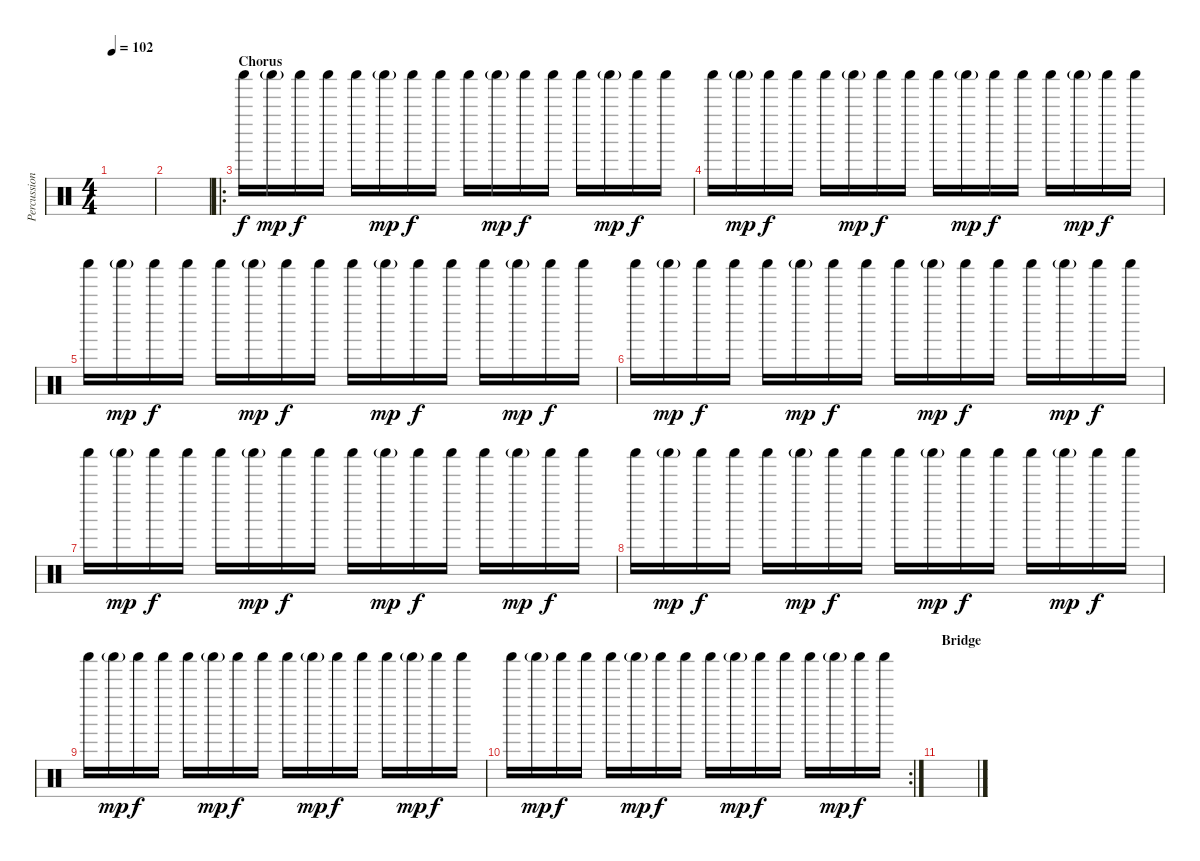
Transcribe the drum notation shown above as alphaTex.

\track ("Percussion" "Percussion") {instrument percussion}
\staff {score}
\articulation defaults
\ts (4 4)
\tempo 102
\clef neutral
\ks c
|
|
\ro
\section ("" "Chorus")
"Shaker (hit)".16 "Shaker (hit)"{g}.16{dy mp} "Shaker (hit)".16{dy f} "Shaker (hit)".16 "Shaker (hit)".16 "Shaker (hit)"{g}.16{dy mp} "Shaker (hit)".16{dy f} "Shaker (hit)".16 "Shaker (hit)".16 "Shaker (hit)"{g}.16{dy mp} "Shaker (hit)".16{dy f} "Shaker (hit)".16 "Shaker (hit)".16 "Shaker (hit)"{g}.16{dy mp} "Shaker (hit)".16{dy f} "Shaker (hit)".16 |
"Shaker (hit)".16 "Shaker (hit)"{g}.16{dy mp} "Shaker (hit)".16{dy f} "Shaker (hit)".16 "Shaker (hit)".16 "Shaker (hit)"{g}.16{dy mp} "Shaker (hit)".16{dy f} "Shaker (hit)".16 "Shaker (hit)".16 "Shaker (hit)"{g}.16{dy mp} "Shaker (hit)".16{dy f} "Shaker (hit)".16 "Shaker (hit)".16 "Shaker (hit)"{g}.16{dy mp} "Shaker (hit)".16{dy f} "Shaker (hit)".16 |
"Shaker (hit)".16 "Shaker (hit)"{g}.16{dy mp} "Shaker (hit)".16{dy f} "Shaker (hit)".16 "Shaker (hit)".16 "Shaker (hit)"{g}.16{dy mp} "Shaker (hit)".16{dy f} "Shaker (hit)".16 "Shaker (hit)".16 "Shaker (hit)"{g}.16{dy mp} "Shaker (hit)".16{dy f} "Shaker (hit)".16 "Shaker (hit)".16 "Shaker (hit)"{g}.16{dy mp} "Shaker (hit)".16{dy f} "Shaker (hit)".16 |
"Shaker (hit)".16 "Shaker (hit)"{g}.16{dy mp} "Shaker (hit)".16{dy f} "Shaker (hit)".16 "Shaker (hit)".16 "Shaker (hit)"{g}.16{dy mp} "Shaker (hit)".16{dy f} "Shaker (hit)".16 "Shaker (hit)".16 "Shaker (hit)"{g}.16{dy mp} "Shaker (hit)".16{dy f} "Shaker (hit)".16 "Shaker (hit)".16 "Shaker (hit)"{g}.16{dy mp} "Shaker (hit)".16{dy f} "Shaker (hit)".16 |
"Shaker (hit)".16 "Shaker (hit)"{g}.16{dy mp} "Shaker (hit)".16{dy f} "Shaker (hit)".16 "Shaker (hit)".16 "Shaker (hit)"{g}.16{dy mp} "Shaker (hit)".16{dy f} "Shaker (hit)".16 "Shaker (hit)".16 "Shaker (hit)"{g}.16{dy mp} "Shaker (hit)".16{dy f} "Shaker (hit)".16 "Shaker (hit)".16 "Shaker (hit)"{g}.16{dy mp} "Shaker (hit)".16{dy f} "Shaker (hit)".16 |
"Shaker (hit)".16 "Shaker (hit)"{g}.16{dy mp} "Shaker (hit)".16{dy f} "Shaker (hit)".16 "Shaker (hit)".16 "Shaker (hit)"{g}.16{dy mp} "Shaker (hit)".16{dy f} "Shaker (hit)".16 "Shaker (hit)".16 "Shaker (hit)"{g}.16{dy mp} "Shaker (hit)".16{dy f} "Shaker (hit)".16 "Shaker (hit)".16 "Shaker (hit)"{g}.16{dy mp} "Shaker (hit)".16{dy f} "Shaker (hit)".16 |
"Shaker (hit)".16 "Shaker (hit)"{g}.16{dy mp} "Shaker (hit)".16{dy f} "Shaker (hit)".16 "Shaker (hit)".16 "Shaker (hit)"{g}.16{dy mp} "Shaker (hit)".16{dy f} "Shaker (hit)".16 "Shaker (hit)".16 "Shaker (hit)"{g}.16{dy mp} "Shaker (hit)".16{dy f} "Shaker (hit)".16 "Shaker (hit)".16 "Shaker (hit)"{g}.16{dy mp} "Shaker (hit)".16{dy f} "Shaker (hit)".16 |
\rc 2 "Shaker (hit)".16 "Shaker (hit)"{g}.16{dy mp} "Shaker (hit)".16{dy f} "Shaker (hit)".16 "Shaker (hit)".16 "Shaker (hit)"{g}.16{dy mp} "Shaker (hit)".16{dy f} "Shaker (hit)".16 "Shaker (hit)".16 "Shaker (hit)"{g}.16{dy mp} "Shaker (hit)".16{dy f} "Shaker (hit)".16 "Shaker (hit)".16 "Shaker (hit)"{g}.16{dy mp} "Shaker (hit)".16{dy f} "Shaker (hit)".16
|
\section ("" "Bridge")
